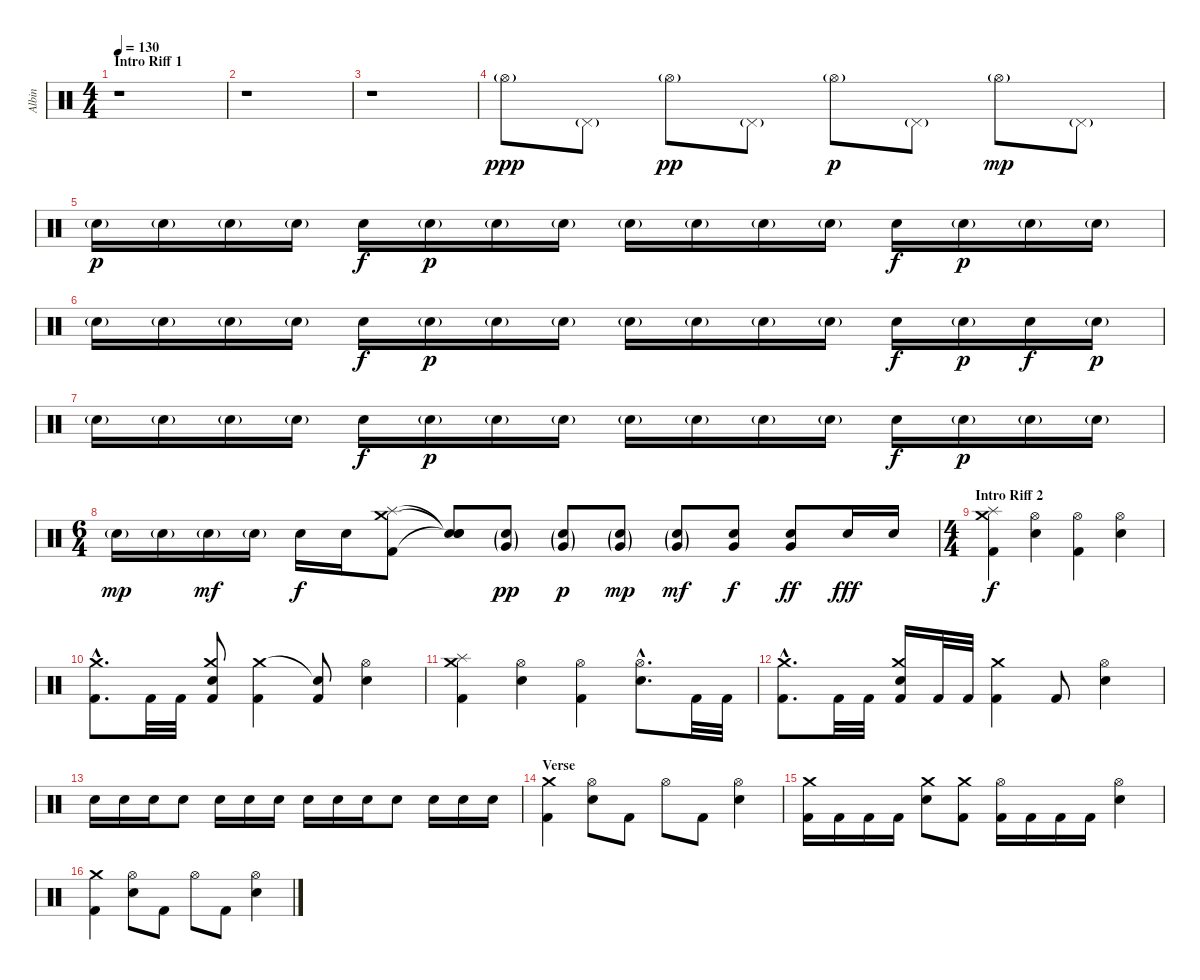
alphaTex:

\track ("Albin" "Albin") {instrument percussion}
\staff {score}
\articulation defaults
\ts (4 4)
\section ("" "Intro Riff 1")
\tempo 130
\clef neutral
\ks c
r.1{dy ppp} |
r.1 |
r.1 |
"Hi-Hat (open)"{g}.8 "Pedal Hi-Hat (hit)"{g}.8 "Hi-Hat (open)"{g}.8{dy pp} "Pedal Hi-Hat (hit)"{g}.8 "Hi-Hat (open)"{g}.8{dy p} "Pedal Hi-Hat (hit)"{g}.8 "Hi-Hat (open)"{g}.8{dy mp} "Pedal Hi-Hat (hit)"{g}.8 |
"Electric Snare (hit)"{g}.16{dy p} "Electric Snare (hit)"{g}.16 "Electric Snare (hit)"{g}.16 "Electric Snare (hit)"{g}.16 "Electric Snare (hit)".16{dy f} "Electric Snare (hit)"{g}.16{dy p} "Electric Snare (hit)"{g}.16 "Electric Snare (hit)"{g}.16 "Electric Snare (hit)"{g}.16 "Electric Snare (hit)"{g}.16 "Electric Snare (hit)"{g}.16 "Electric Snare (hit)"{g}.16 "Electric Snare (hit)".16{dy f} "Electric Snare (hit)"{g}.16{dy p} "Electric Snare (hit)"{g}.16 "Electric Snare (hit)"{g}.16 |
"Electric Snare (hit)"{g}.16 "Electric Snare (hit)"{g}.16 "Electric Snare (hit)"{g}.16 "Electric Snare (hit)"{g}.16 "Electric Snare (hit)".16{dy f} "Electric Snare (hit)"{g}.16{dy p} "Electric Snare (hit)"{g}.16 "Electric Snare (hit)"{g}.16 "Electric Snare (hit)"{g}.16 "Electric Snare (hit)"{g}.16 "Electric Snare (hit)"{g}.16 "Electric Snare (hit)"{g}.16 "Electric Snare (hit)".16{dy f} "Electric Snare (hit)"{g}.16{dy p} "Electric Snare (hit)".16{dy f} "Electric Snare (hit)"{g}.16{dy p} |
"Electric Snare (hit)"{g}.16 "Electric Snare (hit)"{g}.16 "Electric Snare (hit)"{g}.16 "Electric Snare (hit)"{g}.16 "Electric Snare (hit)".16{dy f} "Electric Snare (hit)"{g}.16{dy p} "Electric Snare (hit)"{g}.16 "Electric Snare (hit)"{g}.16 "Electric Snare (hit)"{g}.16 "Electric Snare (hit)"{g}.16 "Electric Snare (hit)"{g}.16 "Electric Snare (hit)"{g}.16 "Electric Snare (hit)".16{dy f} "Electric Snare (hit)"{g}.16{dy p} "Electric Snare (hit)"{g}.16 "Electric Snare (hit)"{g}.16 |
\ts (6 4)
"Electric Snare (hit)"{g}.16{dy mp} "Electric Snare (hit)"{g}.16 "Electric Snare (hit)"{g}.16{dy mf} "Electric Snare (hit)"{g}.16 "Electric Snare (hit)".16{dy f} "Electric Snare (hit)".16 ("Crash medium (hit)" "Splash (hit)" "Kick (hit) 2").8 ("Snare (hit)"{t} "Snare (hit)"{t} "Snare (hit)"{t}).8 ("Very Low Tom (hit)"{g} "Electric Snare (hit)"{g}).8{dy pp} ("Very Low Tom (hit)"{g} "Electric Snare (hit)"{g}).8{dy p} ("Very Low Tom (hit)"{g} "Electric Snare (hit)"{g}).8{dy mp} ("Very Low Tom (hit)"{g} "Electric Snare (hit)"{g}).8{dy mf} ("Very Low Tom (hit)" "Electric Snare (hit)").8{dy f} ("Very Low Tom (hit)" "Electric Snare (hit)").8{dy ff} "Electric Snare (hit)".16{dy fff} "Electric Snare (hit)".16 |
\ts (4 4)
\section ("" "Intro Riff 2")
("Crash medium (hit)" "Splash (hit)" "Kick (hit) 2").4{dy f} ("Hi-Hat (open)" "Electric Snare (hit)").4 ("Hi-Hat (open)" "Kick (hit) 2").4 ("Hi-Hat (open)" "Electric Snare (hit)").4 |
("Crash medium (hit)"{hac} "Kick (hit) 2"{hac}).8{d} "Kick (hit) 2".32 "Kick (hit) 2".32 ("Crash medium (hit)" "Electric Snare (hit)" "Kick (hit) 2").8 ("Crash medium (hit)" "Kick (hit) 2").4 ("Snare (hit)"{t} "Kick (hit) 2").8 ("Hi-Hat (open)" "Electric Snare (hit)").4 |
("Crash medium (hit)" "Splash (hit)" "Kick (hit) 2").4 ("Hi-Hat (open)" "Electric Snare (hit)").4 ("Hi-Hat (open)" "Kick (hit) 2").4 ("Hi-Hat (open)"{hac} "Electric Snare (hit)"{hac}).8{d} "Kick (hit) 2".32 "Kick (hit) 2".32 |
("Crash medium (hit)"{hac} "Kick (hit) 2"{hac}).8{d} "Kick (hit) 2".32 "Kick (hit) 2".32 ("Crash medium (hit)" "Electric Snare (hit)" "Kick (hit) 2").16 "Kick (hit) 2".32 "Kick (hit) 2".32 ("Crash medium (hit)" "Kick (hit) 2").4 "Kick (hit) 2".8 ("Hi-Hat (open)" "Electric Snare (hit)").4 |
"Electric Snare (hit)".16 "Electric Snare (hit)".16 "Electric Snare (hit)".16 "Electric Snare (hit)".8 "Electric Snare (hit)".16 "Electric Snare (hit)".16 "Electric Snare (hit)".16 "Electric Snare (hit)".16 "Electric Snare (hit)".16 "Electric Snare (hit)".16 "Electric Snare (hit)".8 "Electric Snare (hit)".16 "Electric Snare (hit)".16 "Electric Snare (hit)".16 |
\section ("" "Verse")
("Crash medium (hit)" "Kick (hit) 2").4 ("Hi-Hat (open)" "Electric Snare (hit)").8 "Kick (hit) 2".8 "Hi-Hat (open)".8 "Kick (hit) 2".8 ("Hi-Hat (open)" "Electric Snare (hit)").4 |
("Crash medium (hit)" "Kick (hit) 2").16 "Kick (hit) 2".16 "Kick (hit) 2".16 "Kick (hit) 2".16 ("Crash medium (hit)" "Electric Snare (hit)").8 ("Crash medium (hit)" "Kick (hit) 2").8 ("Hi-Hat (open)" "Kick (hit) 2").16 "Kick (hit) 2".16 "Kick (hit) 2".16 "Kick (hit) 2".16 ("Hi-Hat (open)" "Electric Snare (hit)").4 |
("Crash medium (hit)" "Kick (hit) 2").4 ("Hi-Hat (open)" "Electric Snare (hit)").8 "Kick (hit) 2".8 "Hi-Hat (open)".8 "Kick (hit) 2".8 ("Hi-Hat (open)" "Electric Snare (hit)").4
